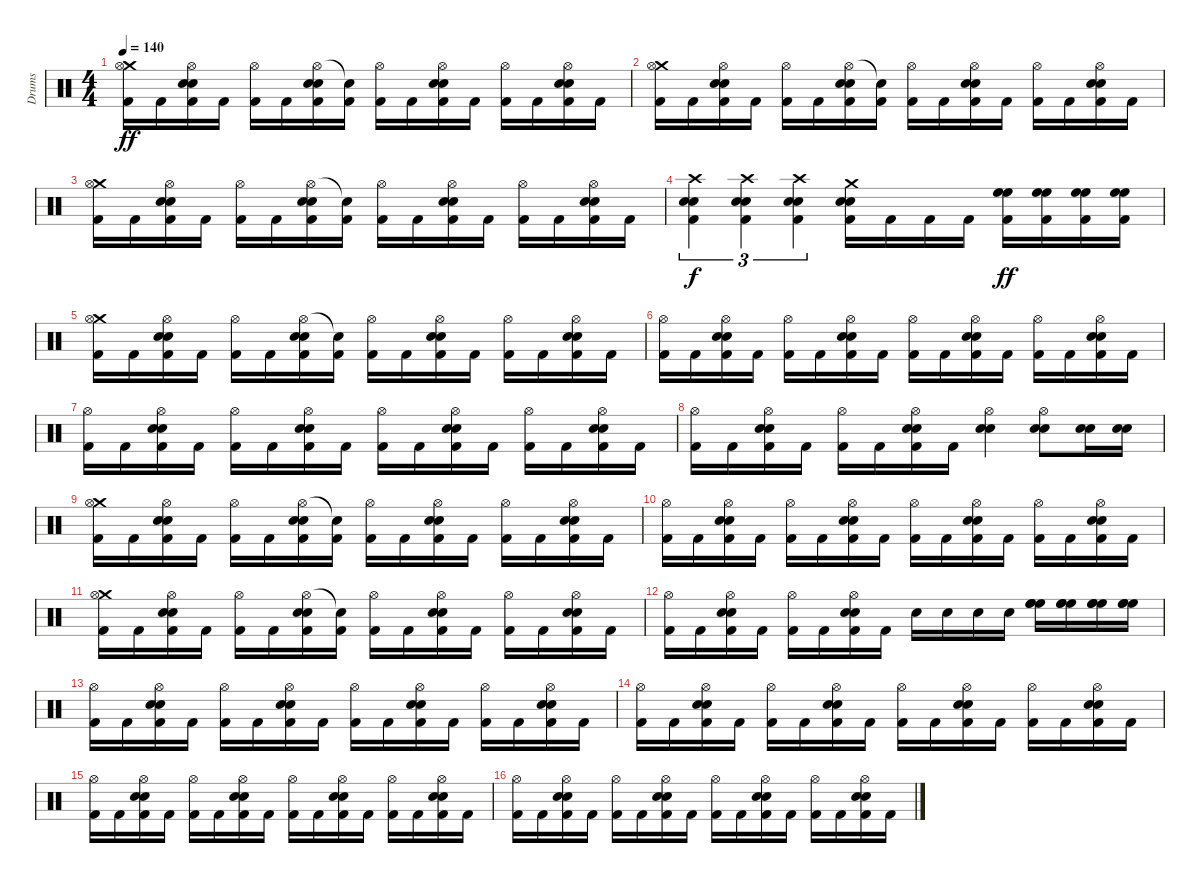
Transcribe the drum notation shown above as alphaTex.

\track ("Drums" "Drums") {instrument percussion}
\staff {score}
\articulation defaults
\ts (4 4)
\tempo 140
\clef neutral
\ks c
("Crash medium (hit)" "Hi-Hat (open)" "Kick (hit) 2").16{dy ff} "Kick (hit) 2".16 ("Hi-Hat (open)" "Electric Snare (hit)" "Electric Snare (hit)" "Kick (hit) 2").16 "Kick (hit) 2".16 ("Hi-Hat (open)" "Kick (hit) 2").16 "Kick (hit) 2".16 ("Hi-Hat (open)" "Electric Snare (hit)" "Electric Snare (hit)" "Kick (hit) 2").16 ("Snare (hit)"{t} "Kick (hit) 2").16 ("Hi-Hat (open)" "Kick (hit) 2").16 "Kick (hit) 2".16 ("Hi-Hat (open)" "Electric Snare (hit)" "Electric Snare (hit)" "Kick (hit) 2").16 "Kick (hit) 2".16 ("Hi-Hat (open)" "Kick (hit) 2").16 "Kick (hit) 2".16 ("Hi-Hat (open)" "Electric Snare (hit)" "Electric Snare (hit)" "Kick (hit) 2").16 "Kick (hit) 2".16 |
("Crash medium (hit)" "Hi-Hat (open)" "Kick (hit) 2").16 "Kick (hit) 2".16 ("Hi-Hat (open)" "Electric Snare (hit)" "Electric Snare (hit)" "Kick (hit) 2").16 "Kick (hit) 2".16 ("Hi-Hat (open)" "Kick (hit) 2").16 "Kick (hit) 2".16 ("Hi-Hat (open)" "Electric Snare (hit)" "Electric Snare (hit)" "Kick (hit) 2").16 ("Snare (hit)"{t} "Kick (hit) 2").16 ("Hi-Hat (open)" "Kick (hit) 2").16 "Kick (hit) 2".16 ("Hi-Hat (open)" "Electric Snare (hit)" "Electric Snare (hit)" "Kick (hit) 2").16 "Kick (hit) 2".16 ("Hi-Hat (open)" "Kick (hit) 2").16 "Kick (hit) 2".16 ("Hi-Hat (open)" "Electric Snare (hit)" "Electric Snare (hit)" "Kick (hit) 2").16 "Kick (hit) 2".16 |
("Crash medium (hit)" "Hi-Hat (open)" "Kick (hit) 2").16 "Kick (hit) 2".16 ("Hi-Hat (open)" "Electric Snare (hit)" "Electric Snare (hit)" "Kick (hit) 2").16 "Kick (hit) 2".16 ("Hi-Hat (open)" "Kick (hit) 2").16 "Kick (hit) 2".16 ("Hi-Hat (open)" "Electric Snare (hit)" "Electric Snare (hit)" "Kick (hit) 2").16 ("Snare (hit)"{t} "Kick (hit) 2").16 ("Hi-Hat (open)" "Kick (hit) 2").16 "Kick (hit) 2".16 ("Hi-Hat (open)" "Electric Snare (hit)" "Electric Snare (hit)" "Kick (hit) 2").16 "Kick (hit) 2".16 ("Hi-Hat (open)" "Kick (hit) 2").16 "Kick (hit) 2".16 ("Hi-Hat (open)" "Electric Snare (hit)" "Electric Snare (hit)" "Kick (hit) 2").16 "Kick (hit) 2".16 |
("Crash high (hit)" "Electric Snare (hit)" "Electric Snare (hit)" "Kick (hit) 2").4{tu (3 2) dy f} ("Crash high (hit)" "Electric Snare (hit)" "Electric Snare (hit)" "Kick (hit) 2").4{tu (3 2)} ("Crash high (hit)" "Electric Snare (hit)" "Electric Snare (hit)" "Kick (hit) 2").4{tu (3 2)} ("Crash medium (hit)" "Electric Snare (hit)" "Electric Snare (hit)" "Kick (hit) 2").16 "Kick (hit) 2".16 "Kick (hit) 2".16 "Kick (hit) 2".16 ("High Floor Tom (hit)" "High Floor Tom (hit)" "Kick (hit) 2").16{dy ff} ("High Floor Tom (hit)" "High Floor Tom (hit)" "Kick (hit) 2").16 ("High Floor Tom (hit)" "High Floor Tom (hit)" "Kick (hit) 2").16 ("High Floor Tom (hit)" "High Floor Tom (hit)" "Kick (hit) 2").16 |
("Crash medium (hit)" "Hi-Hat (open)" "Kick (hit) 2").16 "Kick (hit) 2".16 ("Hi-Hat (open)" "Electric Snare (hit)" "Electric Snare (hit)" "Kick (hit) 2").16 "Kick (hit) 2".16 ("Hi-Hat (open)" "Kick (hit) 2").16 "Kick (hit) 2".16 ("Hi-Hat (open)" "Electric Snare (hit)" "Electric Snare (hit)" "Kick (hit) 2").16 ("Snare (hit)"{t} "Kick (hit) 2").16 ("Hi-Hat (open)" "Kick (hit) 2").16 "Kick (hit) 2".16 ("Hi-Hat (open)" "Electric Snare (hit)" "Electric Snare (hit)" "Kick (hit) 2").16 "Kick (hit) 2".16 ("Hi-Hat (open)" "Kick (hit) 2").16 "Kick (hit) 2".16 ("Hi-Hat (open)" "Electric Snare (hit)" "Electric Snare (hit)" "Kick (hit) 2").16 "Kick (hit) 2".16 |
("Hi-Hat (open)" "Kick (hit) 2").16 "Kick (hit) 2".16 ("Hi-Hat (open)" "Electric Snare (hit)" "Electric Snare (hit)" "Kick (hit) 2").16 "Kick (hit) 2".16 ("Hi-Hat (open)" "Kick (hit) 2").16 "Kick (hit) 2".16 ("Hi-Hat (open)" "Electric Snare (hit)" "Electric Snare (hit)" "Kick (hit) 2").16 "Kick (hit) 2".16 ("Hi-Hat (open)" "Kick (hit) 2").16 "Kick (hit) 2".16 ("Hi-Hat (open)" "Electric Snare (hit)" "Electric Snare (hit)" "Kick (hit) 2").16 "Kick (hit) 2".16 ("Hi-Hat (open)" "Kick (hit) 2").16 "Kick (hit) 2".16 ("Hi-Hat (open)" "Electric Snare (hit)" "Electric Snare (hit)" "Kick (hit) 2").16 "Kick (hit) 2".16 |
("Hi-Hat (open)" "Kick (hit) 2").16 "Kick (hit) 2".16 ("Hi-Hat (open)" "Electric Snare (hit)" "Electric Snare (hit)" "Kick (hit) 2").16 "Kick (hit) 2".16 ("Hi-Hat (open)" "Kick (hit) 2").16 "Kick (hit) 2".16 ("Hi-Hat (open)" "Electric Snare (hit)" "Electric Snare (hit)" "Kick (hit) 2").16 "Kick (hit) 2".16 ("Hi-Hat (open)" "Kick (hit) 2").16 "Kick (hit) 2".16 ("Hi-Hat (open)" "Electric Snare (hit)" "Electric Snare (hit)" "Kick (hit) 2").16 "Kick (hit) 2".16 ("Hi-Hat (open)" "Kick (hit) 2").16 "Kick (hit) 2".16 ("Hi-Hat (open)" "Electric Snare (hit)" "Electric Snare (hit)" "Kick (hit) 2").16 "Kick (hit) 2".16 |
("Hi-Hat (open)" "Kick (hit) 2").16 "Kick (hit) 2".16 ("Hi-Hat (open)" "Electric Snare (hit)" "Electric Snare (hit)" "Kick (hit) 2").16 "Kick (hit) 2".16 ("Hi-Hat (open)" "Kick (hit) 2").16 "Kick (hit) 2".16 ("Hi-Hat (open)" "Electric Snare (hit)" "Electric Snare (hit)" "Kick (hit) 2").16 "Kick (hit) 2".16 ("Hi-Hat (open)" "Electric Snare (hit)" "Electric Snare (hit)").4 ("Hi-Hat (open)" "Electric Snare (hit)" "Electric Snare (hit)").8 ("Electric Snare (hit)" "Electric Snare (hit)").16 ("Electric Snare (hit)" "Electric Snare (hit)").16 |
("Crash medium (hit)" "Hi-Hat (open)" "Kick (hit) 2").16 "Kick (hit) 2".16 ("Hi-Hat (open)" "Electric Snare (hit)" "Electric Snare (hit)" "Kick (hit) 2").16 "Kick (hit) 2".16 ("Hi-Hat (open)" "Kick (hit) 2").16 "Kick (hit) 2".16 ("Hi-Hat (open)" "Electric Snare (hit)" "Electric Snare (hit)" "Kick (hit) 2").16 ("Snare (hit)"{t} "Kick (hit) 2").16 ("Hi-Hat (open)" "Kick (hit) 2").16 "Kick (hit) 2".16 ("Hi-Hat (open)" "Electric Snare (hit)" "Electric Snare (hit)" "Kick (hit) 2").16 "Kick (hit) 2".16 ("Hi-Hat (open)" "Kick (hit) 2").16 "Kick (hit) 2".16 ("Hi-Hat (open)" "Electric Snare (hit)" "Electric Snare (hit)" "Kick (hit) 2").16 "Kick (hit) 2".16 |
("Hi-Hat (open)" "Kick (hit) 2").16 "Kick (hit) 2".16 ("Hi-Hat (open)" "Electric Snare (hit)" "Electric Snare (hit)" "Kick (hit) 2").16 "Kick (hit) 2".16 ("Hi-Hat (open)" "Kick (hit) 2").16 "Kick (hit) 2".16 ("Hi-Hat (open)" "Electric Snare (hit)" "Electric Snare (hit)" "Kick (hit) 2").16 "Kick (hit) 2".16 ("Hi-Hat (open)" "Kick (hit) 2").16 "Kick (hit) 2".16 ("Hi-Hat (open)" "Electric Snare (hit)" "Electric Snare (hit)" "Kick (hit) 2").16 "Kick (hit) 2".16 ("Hi-Hat (open)" "Kick (hit) 2").16 "Kick (hit) 2".16 ("Hi-Hat (open)" "Electric Snare (hit)" "Electric Snare (hit)" "Kick (hit) 2").16 "Kick (hit) 2".16 |
("Crash medium (hit)" "Hi-Hat (open)" "Kick (hit) 2").16 "Kick (hit) 2".16 ("Hi-Hat (open)" "Electric Snare (hit)" "Electric Snare (hit)" "Kick (hit) 2").16 "Kick (hit) 2".16 ("Hi-Hat (open)" "Kick (hit) 2").16 "Kick (hit) 2".16 ("Hi-Hat (open)" "Electric Snare (hit)" "Electric Snare (hit)" "Kick (hit) 2").16 ("Snare (hit)"{t} "Kick (hit) 2").16 ("Hi-Hat (open)" "Kick (hit) 2").16 "Kick (hit) 2".16 ("Hi-Hat (open)" "Electric Snare (hit)" "Electric Snare (hit)" "Kick (hit) 2").16 "Kick (hit) 2".16 ("Hi-Hat (open)" "Kick (hit) 2").16 "Kick (hit) 2".16 ("Hi-Hat (open)" "Electric Snare (hit)" "Electric Snare (hit)" "Kick (hit) 2").16 "Kick (hit) 2".16 |
("Hi-Hat (open)" "Kick (hit) 2").16 "Kick (hit) 2".16 ("Hi-Hat (open)" "Electric Snare (hit)" "Electric Snare (hit)" "Kick (hit) 2").16 "Kick (hit) 2".16 ("Hi-Hat (open)" "Kick (hit) 2").16 "Kick (hit) 2".16 ("Hi-Hat (open)" "Electric Snare (hit)" "Electric Snare (hit)" "Kick (hit) 2").16 "Kick (hit) 2".16 "Electric Snare (hit)".16 "Electric Snare (hit)".16 "Electric Snare (hit)".16 "Electric Snare (hit)".16 ("High Floor Tom (hit)" "High Floor Tom (hit)" "High Floor Tom (hit)").16 ("High Floor Tom (hit)" "High Floor Tom (hit)" "High Floor Tom (hit)").16 ("High Floor Tom (hit)" "High Floor Tom (hit)" "High Floor Tom (hit)").16 ("High Floor Tom (hit)" "High Floor Tom (hit)" "High Floor Tom (hit)").16 |
("Hi-Hat (open)" "Kick (hit) 2").16 "Kick (hit) 2".16 ("Hi-Hat (open)" "Electric Snare (hit)" "Electric Snare (hit)" "Kick (hit) 2").16 "Kick (hit) 2".16 ("Hi-Hat (open)" "Kick (hit) 2").16 "Kick (hit) 2".16 ("Hi-Hat (open)" "Electric Snare (hit)" "Electric Snare (hit)" "Kick (hit) 2").16 "Kick (hit) 2".16 ("Hi-Hat (open)" "Kick (hit) 2").16 "Kick (hit) 2".16 ("Hi-Hat (open)" "Electric Snare (hit)" "Electric Snare (hit)" "Kick (hit) 2").16 "Kick (hit) 2".16 ("Hi-Hat (open)" "Kick (hit) 2").16 "Kick (hit) 2".16 ("Hi-Hat (open)" "Electric Snare (hit)" "Electric Snare (hit)" "Kick (hit) 2").16 "Kick (hit) 2".16 |
("Hi-Hat (open)" "Kick (hit) 2").16 "Kick (hit) 2".16 ("Hi-Hat (open)" "Electric Snare (hit)" "Electric Snare (hit)" "Kick (hit) 2").16 "Kick (hit) 2".16 ("Hi-Hat (open)" "Kick (hit) 2").16 "Kick (hit) 2".16 ("Hi-Hat (open)" "Electric Snare (hit)" "Electric Snare (hit)" "Kick (hit) 2").16 "Kick (hit) 2".16 ("Hi-Hat (open)" "Kick (hit) 2").16 "Kick (hit) 2".16 ("Hi-Hat (open)" "Electric Snare (hit)" "Electric Snare (hit)" "Kick (hit) 2").16 "Kick (hit) 2".16 ("Hi-Hat (open)" "Kick (hit) 2").16 "Kick (hit) 2".16 ("Hi-Hat (open)" "Electric Snare (hit)" "Electric Snare (hit)" "Kick (hit) 2").16 "Kick (hit) 2".16 |
("Hi-Hat (open)" "Kick (hit) 2").16 "Kick (hit) 2".16 ("Hi-Hat (open)" "Electric Snare (hit)" "Electric Snare (hit)" "Kick (hit) 2").16 "Kick (hit) 2".16 ("Hi-Hat (open)" "Kick (hit) 2").16 "Kick (hit) 2".16 ("Hi-Hat (open)" "Electric Snare (hit)" "Electric Snare (hit)" "Kick (hit) 2").16 "Kick (hit) 2".16 ("Hi-Hat (open)" "Kick (hit) 2").16 "Kick (hit) 2".16 ("Hi-Hat (open)" "Electric Snare (hit)" "Electric Snare (hit)" "Kick (hit) 2").16 "Kick (hit) 2".16 ("Hi-Hat (open)" "Kick (hit) 2").16 "Kick (hit) 2".16 ("Hi-Hat (open)" "Electric Snare (hit)" "Electric Snare (hit)" "Kick (hit) 2").16 "Kick (hit) 2".16 |
("Hi-Hat (open)" "Kick (hit) 2").16 "Kick (hit) 2".16 ("Hi-Hat (open)" "Electric Snare (hit)" "Electric Snare (hit)" "Kick (hit) 2").16 "Kick (hit) 2".16 ("Hi-Hat (open)" "Kick (hit) 2").16 "Kick (hit) 2".16 ("Hi-Hat (open)" "Electric Snare (hit)" "Electric Snare (hit)" "Kick (hit) 2").16 "Kick (hit) 2".16 ("Hi-Hat (open)" "Kick (hit) 2").16 "Kick (hit) 2".16 ("Hi-Hat (open)" "Electric Snare (hit)" "Electric Snare (hit)" "Kick (hit) 2").16 "Kick (hit) 2".16 ("Hi-Hat (open)" "Kick (hit) 2").16 "Kick (hit) 2".16 ("Hi-Hat (open)" "Electric Snare (hit)" "Electric Snare (hit)" "Kick (hit) 2").16 "Kick (hit) 2".16
